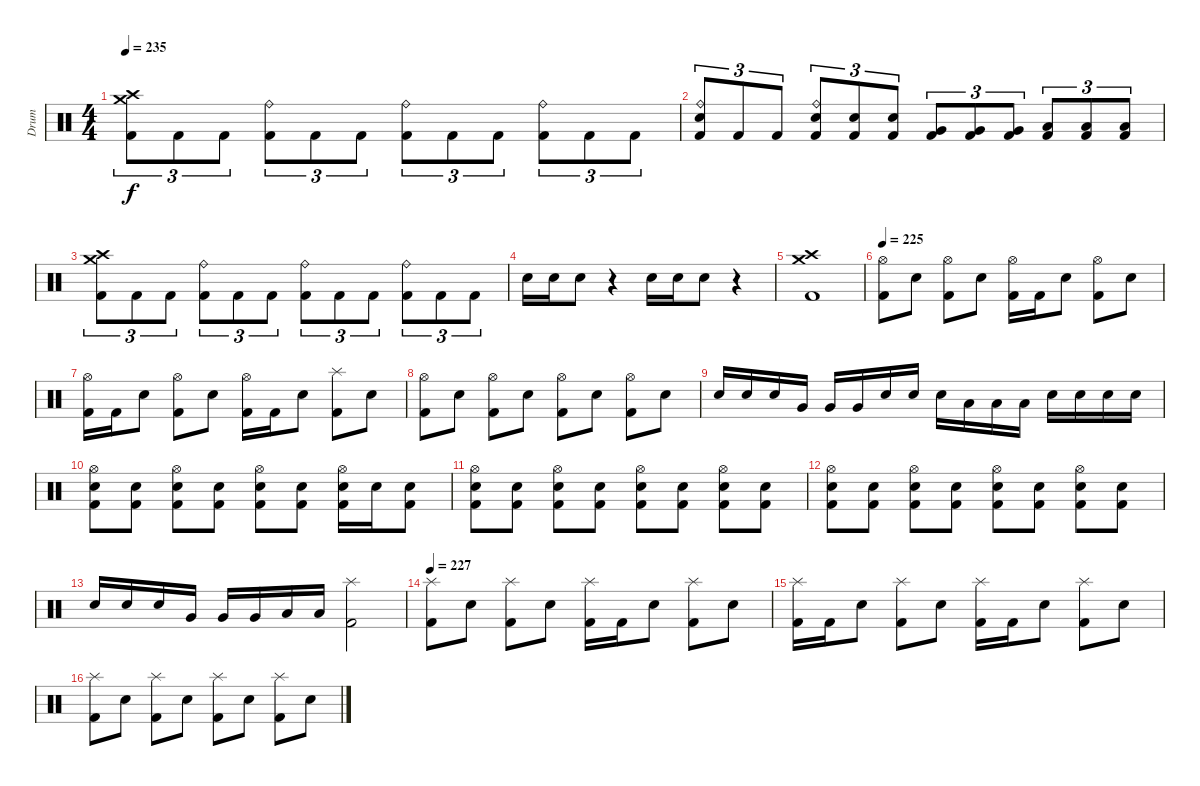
\track ("Drum" "Drum") {instrument percussion}
\staff {score}
\articulation defaults
\ts (4 4)
\tempo 235
\clef neutral
\ks c
("Crash medium (hit)" "Crash high (hit)" "Kick (hit) 2").8{tu (3 2) dy f} "Kick (hit) 2".8{tu (3 2)} "Kick (hit) 2".8{tu (3 2)} ("Ride (bell)" "Kick (hit) 2").8{tu (3 2)} "Kick (hit) 2".8{tu (3 2)} "Kick (hit) 2".8{tu (3 2)} ("Ride (bell)" "Kick (hit) 2").8{tu (3 2)} "Kick (hit) 2".8{tu (3 2)} "Kick (hit) 2".8{tu (3 2)} ("Ride (bell)" "Kick (hit) 2").8{tu (3 2)} "Kick (hit) 2".8{tu (3 2)} "Kick (hit) 2".8{tu (3 2)} |
("Ride (bell)" "Electric Snare (hit)" "Kick (hit) 2").8{tu (3 2)} "Kick (hit) 2".8{tu (3 2)} "Kick (hit) 2".8{tu (3 2)} ("Ride (bell)" "Electric Snare (hit)" "Kick (hit) 2").8{tu (3 2)} ("Electric Snare (hit)" "Kick (hit) 2").8{tu (3 2)} ("Electric Snare (hit)" "Kick (hit) 2").8{tu (3 2)} ("Very Low Tom (hit)" "Kick (hit) 2").8{tu (3 2)} ("Very Low Tom (hit)" "Kick (hit) 2").8{tu (3 2)} ("Very Low Tom (hit)" "Kick (hit) 2").8{tu (3 2)} ("Low Tom (hit)" "Kick (hit) 2").8{tu (3 2)} ("Low Tom (hit)" "Kick (hit) 2").8{tu (3 2)} ("Low Tom (hit)" "Kick (hit) 2").8{tu (3 2)} |
("Crash medium (hit)" "Crash high (hit)" "Kick (hit) 2").8{tu (3 2)} "Kick (hit) 2".8{tu (3 2)} "Kick (hit) 2".8{tu (3 2)} ("Ride (bell)" "Kick (hit) 2").8{tu (3 2)} "Kick (hit) 2".8{tu (3 2)} "Kick (hit) 2".8{tu (3 2)} ("Ride (bell)" "Kick (hit) 2").8{tu (3 2)} "Kick (hit) 2".8{tu (3 2)} "Kick (hit) 2".8{tu (3 2)} ("Ride (bell)" "Kick (hit) 2").8{tu (3 2)} "Kick (hit) 2".8{tu (3 2)} "Kick (hit) 2".8{tu (3 2)} |
"Electric Snare (hit)".16 "Electric Snare (hit)".16 "Electric Snare (hit)".8 r.4 "Electric Snare (hit)".16 "Electric Snare (hit)".16 "Electric Snare (hit)".8 r.4 |
("Crash medium (hit)" "Crash high (hit)" "Kick (hit) 2").1 |
\tempo 225
("Hi-Hat (open)" "Kick (hit) 2").8 "Electric Snare (hit)".8 ("Hi-Hat (open)" "Kick (hit) 2").8 "Electric Snare (hit)".8 ("Hi-Hat (open)" "Kick (hit) 2").16 "Kick (hit) 2".16 "Electric Snare (hit)".8 ("Hi-Hat (open)" "Kick (hit) 2").8 "Electric Snare (hit)".8 |
("Hi-Hat (open)" "Kick (hit) 2").16 "Kick (hit) 2".16 "Electric Snare (hit)".8 ("Hi-Hat (open)" "Kick (hit) 2").8 "Electric Snare (hit)".8 ("Hi-Hat (open)" "Kick (hit) 2").16 "Kick (hit) 2".16 "Electric Snare (hit)".8 ("Splash (hit)" "Kick (hit) 2").8 "Electric Snare (hit)".8 |
("Hi-Hat (open)" "Kick (hit) 2").8 "Electric Snare (hit)".8 ("Hi-Hat (open)" "Kick (hit) 2").8 "Electric Snare (hit)".8 ("Hi-Hat (open)" "Kick (hit) 2").8 "Electric Snare (hit)".8 ("Hi-Hat (open)" "Kick (hit) 2").8 "Electric Snare (hit)".8 |
"Electric Snare (hit)".16 "Electric Snare (hit)".16 "Electric Snare (hit)".16 "Very Low Tom (hit)".16 "Very Low Tom (hit)".16 "Very Low Tom (hit)".16 "Electric Snare (hit)".16 "Electric Snare (hit)".16 "Electric Snare (hit)".16 "Low Tom (hit)".16 "Low Tom (hit)".16 "Low Tom (hit)".16 "Electric Snare (hit)".16 "Electric Snare (hit)".16 "Electric Snare (hit)".16 "Electric Snare (hit)".16 |
("Hi-Hat (open)" "Electric Snare (hit)" "Kick (hit) 2").8 ("Electric Snare (hit)" "Kick (hit) 2").8 ("Hi-Hat (open)" "Electric Snare (hit)" "Kick (hit) 2").8 ("Electric Snare (hit)" "Kick (hit) 2").8 ("Hi-Hat (open)" "Electric Snare (hit)" "Kick (hit) 2").8 ("Electric Snare (hit)" "Kick (hit) 2").8 ("Hi-Hat (open)" "Electric Snare (hit)" "Kick (hit) 2").16 "Electric Snare (hit)".16 ("Electric Snare (hit)" "Kick (hit) 2").8 |
("Hi-Hat (open)" "Electric Snare (hit)" "Kick (hit) 2").8 ("Electric Snare (hit)" "Kick (hit) 2").8 ("Hi-Hat (open)" "Electric Snare (hit)" "Kick (hit) 2").8 ("Electric Snare (hit)" "Kick (hit) 2").8 ("Hi-Hat (open)" "Electric Snare (hit)" "Kick (hit) 2").8 ("Electric Snare (hit)" "Kick (hit) 2").8 ("Hi-Hat (open)" "Electric Snare (hit)" "Kick (hit) 2").8 ("Electric Snare (hit)" "Kick (hit) 2").8 |
("Hi-Hat (open)" "Electric Snare (hit)" "Kick (hit) 2").8 ("Electric Snare (hit)" "Kick (hit) 2").8 ("Hi-Hat (open)" "Electric Snare (hit)" "Kick (hit) 2").8 ("Electric Snare (hit)" "Kick (hit) 2").8 ("Hi-Hat (open)" "Electric Snare (hit)" "Kick (hit) 2").8 ("Electric Snare (hit)" "Kick (hit) 2").8 ("Hi-Hat (open)" "Electric Snare (hit)" "Kick (hit) 2").8 ("Electric Snare (hit)" "Kick (hit) 2").8 |
"Electric Snare (hit)".16 "Electric Snare (hit)".16 "Electric Snare (hit)".16 "Very Low Tom (hit)".16 "Very Low Tom (hit)".16 "Very Low Tom (hit)".16 "Low Tom (hit)".16 "Low Tom (hit)".16 ("Splash (hit)" "Kick (hit) 2").2 |
\tempo 227
("Splash (hit)" "Kick (hit) 2").8 "Electric Snare (hit)".8 ("Splash (hit)" "Kick (hit) 2").8 "Electric Snare (hit)".8 ("Splash (hit)" "Kick (hit) 2").16 "Kick (hit) 2".16 "Electric Snare (hit)".8 ("Splash (hit)" "Kick (hit) 2").8 "Electric Snare (hit)".8 |
("Splash (hit)" "Kick (hit) 2").16 "Kick (hit) 2".16 "Electric Snare (hit)".8 ("Splash (hit)" "Kick (hit) 2").8 "Electric Snare (hit)".8 ("Splash (hit)" "Kick (hit) 2").16 "Kick (hit) 2".16 "Electric Snare (hit)".8 ("Splash (hit)" "Kick (hit) 2").8 "Electric Snare (hit)".8 |
("Splash (hit)" "Kick (hit) 2").8 "Electric Snare (hit)".8 ("Splash (hit)" "Kick (hit) 2").8 "Electric Snare (hit)".8 ("Splash (hit)" "Kick (hit) 2").8 "Electric Snare (hit)".8 ("Splash (hit)" "Kick (hit) 2").8 "Electric Snare (hit)".8
